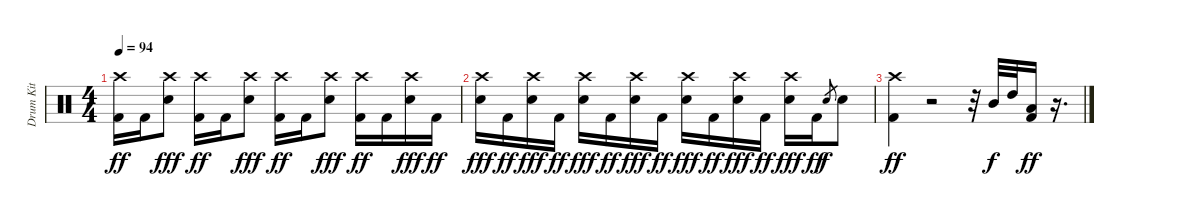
\track ("Drum Kit" "Drum Kit") {instrument percussion}
\staff {score}
\articulation defaults
\ts (4 4)
\tempo 94
\clef neutral
\ks c
("Crash high (hit)" "Kick (hit) 2").16{dy ff} "Kick (hit) 2".16 ("Crash high (hit)" "Electric Snare (hit)").8{dy fff} ("Crash high (hit)" "Kick (hit) 2").16{dy ff} "Kick (hit) 2".16 ("Crash high (hit)" "Electric Snare (hit)").8{dy fff} ("Crash high (hit)" "Kick (hit) 2").16{dy ff} "Kick (hit) 2".16 ("Crash high (hit)" "Electric Snare (hit)").8{dy fff} ("Crash high (hit)" "Kick (hit) 2").16{dy ff} "Kick (hit) 2".16 ("Crash high (hit)" "Electric Snare (hit)").16{dy fff} "Kick (hit) 2".16{dy ff} |
("Crash high (hit)" "Electric Snare (hit)").16{dy fff} "Kick (hit) 2".16{dy ff} ("Crash high (hit)" "Electric Snare (hit)").16{dy fff} "Kick (hit) 2".16{dy ff} ("Crash high (hit)" "Electric Snare (hit)").16{dy fff} "Kick (hit) 2".16{dy ff} ("Crash high (hit)" "Electric Snare (hit)").16{dy fff} "Kick (hit) 2".16{dy ff} ("Crash high (hit)" "Electric Snare (hit)").16{dy fff} "Kick (hit) 2".16{dy ff} ("Crash high (hit)" "Electric Snare (hit)").16{dy fff} "Kick (hit) 2".16{dy ff} ("Crash high (hit)" "Electric Snare (hit)").16{dy fff} "Kick (hit) 2".16{dy ff} "Electric Snare (hit)".8{gr dy f} "Electric Snare (hit)".8 |
("Crash high (hit)" "Kick (hit) 2").4{dy ff} r.2 r.32 "Mid Tom (hit)".32{dy f} "High Tom (hit)".32 ("Low Floor Tom (hit)" "Kick (hit) 2").16{dy ff} r.16{d}
